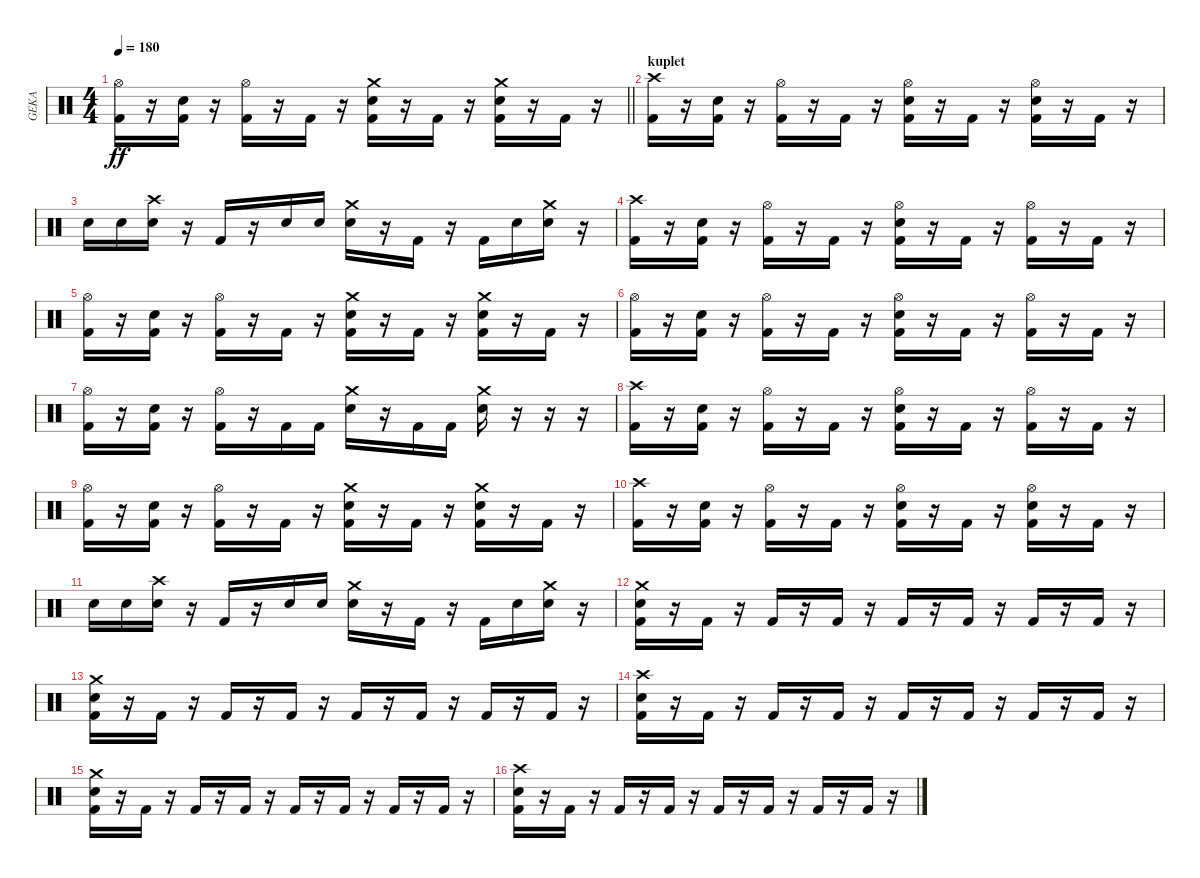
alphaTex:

\track ("GEKA" "GEKA") {instrument percussion}
\staff {score}
\articulation defaults
\ts (4 4)
\tempo 180
\clef neutral
\barLineRight lightlight
\ks c
("Hi-Hat (open)" "Kick (hit) 2").16{dy ff} r.16 ("Snare (hit) 2" "Kick (hit) 2").16 r.16 ("Hi-Hat (open)" "Kick (hit) 2").16 r.16 "Kick (hit) 2".16 r.16 ("Crash medium (hit)" "Snare (hit) 2" "Kick (hit) 2").16 r.16 "Kick (hit) 2".16 r.16 ("Crash medium (hit)" "Snare (hit) 2" "Kick (hit) 2").16 r.16 "Kick (hit) 2".16 r.16 |
\section ("" "kuplet")
("Crash high (hit)" "Kick (hit) 2").16 r.16 ("Snare (hit) 2" "Kick (hit) 2").16 r.16 ("Hi-Hat (open)" "Kick (hit) 2").16 r.16 "Kick (hit) 2".16 r.16 ("Hi-Hat (open)" "Snare (hit) 2" "Kick (hit) 2").16 r.16 "Kick (hit) 2".16 r.16 ("Hi-Hat (open)" "Snare (hit) 2" "Kick (hit) 2").16 r.16 "Kick (hit) 2".16 r.16 |
"Snare (hit) 2".16 "Snare (hit) 2".16 ("Crash high (hit)" "Snare (hit) 2").16 r.16 "Kick (hit) 2".16 r.16 "Snare (hit) 2".16 "Snare (hit) 2".16 ("Crash medium (hit)" "Snare (hit) 2").16 r.16 "Kick (hit) 2".16 r.16 "Kick (hit) 2".16 "Snare (hit) 2".16 ("Crash medium (hit)" "Snare (hit) 2").16 r.16 |
("Crash high (hit)" "Kick (hit) 2").16 r.16 ("Snare (hit) 2" "Kick (hit) 2").16 r.16 ("Hi-Hat (open)" "Kick (hit) 2").16 r.16 "Kick (hit) 2".16 r.16 ("Hi-Hat (open)" "Snare (hit) 2" "Kick (hit) 2").16 r.16 "Kick (hit) 2".16 r.16 ("Hi-Hat (open)" "Kick (hit) 2").16 r.16 "Kick (hit) 2".16 r.16 |
("Hi-Hat (open)" "Kick (hit) 2").16 r.16 ("Snare (hit) 2" "Kick (hit) 2").16 r.16 ("Hi-Hat (open)" "Kick (hit) 2").16 r.16 "Kick (hit) 2".16 r.16 ("Crash medium (hit)" "Snare (hit) 2" "Kick (hit) 2").16 r.16 "Kick (hit) 2".16 r.16 ("Crash medium (hit)" "Snare (hit) 2" "Kick (hit) 2").16 r.16 "Kick (hit) 2".16 r.16 |
("Hi-Hat (open)" "Kick (hit) 2").16 r.16 ("Snare (hit) 2" "Kick (hit) 2").16 r.16 ("Hi-Hat (open)" "Kick (hit) 2").16 r.16 "Kick (hit) 2".16 r.16 ("Hi-Hat (open)" "Snare (hit) 2" "Kick (hit) 2").16 r.16 "Kick (hit) 2".16 r.16 ("Hi-Hat (open)" "Kick (hit) 2").16 r.16 "Kick (hit) 2".16 r.16 |
("Hi-Hat (open)" "Kick (hit) 2").16 r.16 ("Snare (hit) 2" "Kick (hit) 2").16 r.16 ("Hi-Hat (open)" "Kick (hit) 2").16 r.16 "Kick (hit) 2".16 "Kick (hit) 2".16 ("Crash medium (hit)" "Snare (hit) 2").16 r.16 "Kick (hit) 2".16 "Kick (hit) 2".16 ("Crash medium (hit)" "Snare (hit) 2").16 r.16 r.16 r.16 |
("Crash high (hit)" "Kick (hit) 2").16 r.16 ("Snare (hit) 2" "Kick (hit) 2").16 r.16 ("Hi-Hat (open)" "Kick (hit) 2").16 r.16 "Kick (hit) 2".16 r.16 ("Hi-Hat (open)" "Snare (hit) 2" "Kick (hit) 2").16 r.16 "Kick (hit) 2".16 r.16 ("Hi-Hat (open)" "Kick (hit) 2").16 r.16 "Kick (hit) 2".16 r.16 |
("Hi-Hat (open)" "Kick (hit) 2").16 r.16 ("Snare (hit) 2" "Kick (hit) 2").16 r.16 ("Hi-Hat (open)" "Kick (hit) 2").16 r.16 "Kick (hit) 2".16 r.16 ("Crash medium (hit)" "Snare (hit) 2" "Kick (hit) 2").16 r.16 "Kick (hit) 2".16 r.16 ("Crash medium (hit)" "Snare (hit) 2" "Kick (hit) 2").16 r.16 "Kick (hit) 2".16 r.16 |
("Crash high (hit)" "Kick (hit) 2").16 r.16 ("Snare (hit) 2" "Kick (hit) 2").16 r.16 ("Hi-Hat (open)" "Kick (hit) 2").16 r.16 "Kick (hit) 2".16 r.16 ("Hi-Hat (open)" "Snare (hit) 2" "Kick (hit) 2").16 r.16 "Kick (hit) 2".16 r.16 ("Hi-Hat (open)" "Snare (hit) 2" "Kick (hit) 2").16 r.16 "Kick (hit) 2".16 r.16 |
"Snare (hit) 2".16 "Snare (hit) 2".16 ("Crash high (hit)" "Snare (hit) 2").16 r.16 "Kick (hit) 2".16 r.16 "Snare (hit) 2".16 "Snare (hit) 2".16 ("Crash medium (hit)" "Snare (hit) 2").16 r.16 "Kick (hit) 2".16 r.16 "Kick (hit) 2".16 "Snare (hit) 2".16 ("Crash medium (hit)" "Snare (hit) 2").16 r.16 |
("Crash medium (hit)" "Snare (hit) 2" "Kick (hit) 2").16 r.16 "Kick (hit) 2".16 r.16 "Kick (hit) 2".16 r.16 "Kick (hit) 2".16 r.16 "Kick (hit) 2".16 r.16 "Kick (hit) 2".16 r.16 "Kick (hit) 2".16 r.16 "Kick (hit) 2".16 r.16 |
("Crash medium (hit)" "Snare (hit) 2" "Kick (hit) 2").16 r.16 "Kick (hit) 2".16 r.16 "Kick (hit) 2".16 r.16 "Kick (hit) 2".16 r.16 "Kick (hit) 2".16 r.16 "Kick (hit) 2".16 r.16 "Kick (hit) 2".16 r.16 "Kick (hit) 2".16 r.16 |
("Crash high (hit)" "Snare (hit) 2" "Kick (hit) 2").16 r.16 "Kick (hit) 2".16 r.16 "Kick (hit) 2".16 r.16 "Kick (hit) 2".16 r.16 "Kick (hit) 2".16 r.16 "Kick (hit) 2".16 r.16 "Kick (hit) 2".16 r.16 "Kick (hit) 2".16 r.16 |
("Crash medium (hit)" "Snare (hit) 2" "Kick (hit) 2").16 r.16 "Kick (hit) 2".16 r.16 "Kick (hit) 2".16 r.16 "Kick (hit) 2".16 r.16 "Kick (hit) 2".16 r.16 "Kick (hit) 2".16 r.16 "Kick (hit) 2".16 r.16 "Kick (hit) 2".16 r.16 |
("Crash high (hit)" "Snare (hit) 2" "Kick (hit) 2").16 r.16 "Kick (hit) 2".16 r.16 "Kick (hit) 2".16 r.16 "Kick (hit) 2".16 r.16 "Kick (hit) 2".16 r.16 "Kick (hit) 2".16 r.16 "Kick (hit) 2".16 r.16 "Kick (hit) 2".16 r.16
